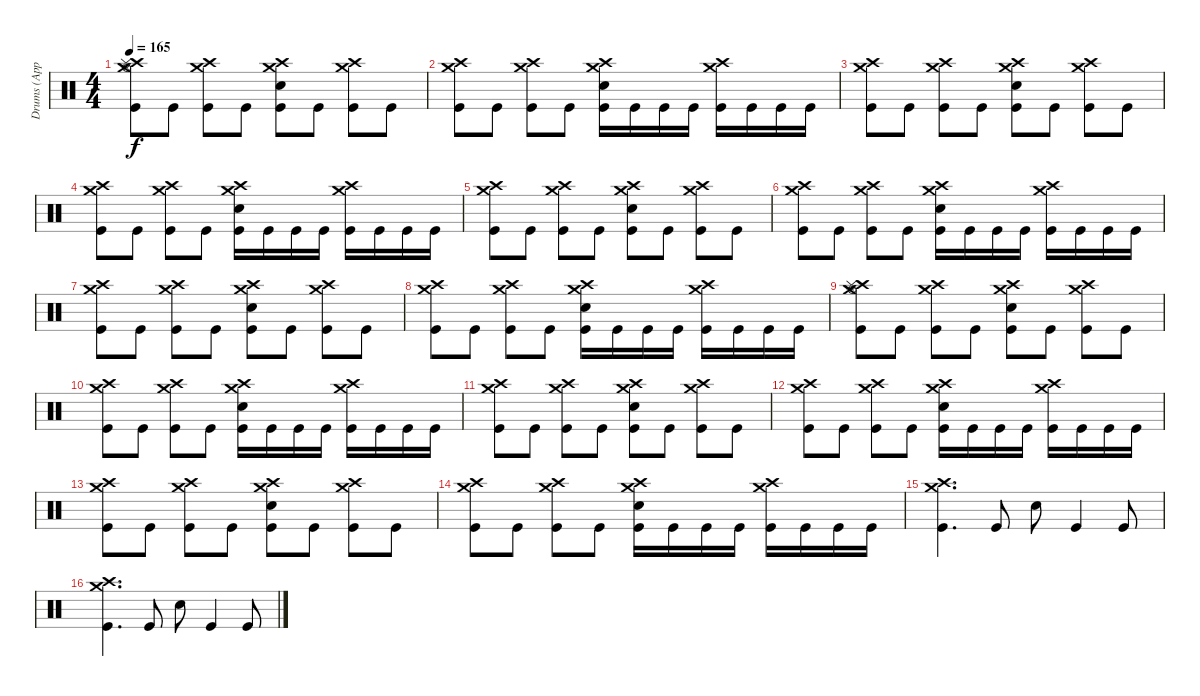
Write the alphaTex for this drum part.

\track ("Drums (Approx.)" "Drums (App") {instrument percussion}
\staff {score}
\articulation defaults
\ts (4 4)
\tempo 165
\clef neutral
\ks c
("Hi-Hat (open)" "Crash medium (hit)" "Crash high (hit)" "Splash (hit)" "Kick (hit)").8{dy f} "Kick (hit)".8 ("Crash medium (hit)" "Crash high (hit)" "Kick (hit)").8 "Kick (hit)".8 ("Crash medium (hit)" "Crash high (hit)" "Electric Snare (hit)" "Kick (hit)").8 "Kick (hit)".8 ("Crash medium (hit)" "Crash high (hit)" "Kick (hit)").8 "Kick (hit)".8 |
("Crash medium (hit)" "Crash high (hit)" "Kick (hit)").8 "Kick (hit)".8 ("Crash medium (hit)" "Crash high (hit)" "Kick (hit)").8 "Kick (hit)".8 ("Crash medium (hit)" "Crash high (hit)" "Electric Snare (hit)" "Kick (hit)").16 "Kick (hit)".16 "Kick (hit)".16 "Kick (hit)".16 ("Crash medium (hit)" "Crash high (hit)" "Kick (hit)").16 "Kick (hit)".16 "Kick (hit)".16 "Kick (hit)".16 |
("Crash medium (hit)" "Crash high (hit)" "Kick (hit)").8 "Kick (hit)".8 ("Crash medium (hit)" "Crash high (hit)" "Kick (hit)").8 "Kick (hit)".8 ("Crash medium (hit)" "Crash high (hit)" "Electric Snare (hit)" "Kick (hit)").8 "Kick (hit)".8 ("Crash medium (hit)" "Crash high (hit)" "Kick (hit)").8 "Kick (hit)".8 |
("Crash medium (hit)" "Crash high (hit)" "Kick (hit)").8 "Kick (hit)".8 ("Crash medium (hit)" "Crash high (hit)" "Kick (hit)").8 "Kick (hit)".8 ("Crash medium (hit)" "Crash high (hit)" "Electric Snare (hit)" "Kick (hit)").16 "Kick (hit)".16 "Kick (hit)".16 "Kick (hit)".16 ("Crash medium (hit)" "Crash high (hit)" "Kick (hit)").16 "Kick (hit)".16 "Kick (hit)".16 "Kick (hit)".16 |
("Crash medium (hit)" "Crash high (hit)" "Kick (hit)").8 "Kick (hit)".8 ("Crash medium (hit)" "Crash high (hit)" "Kick (hit)").8 "Kick (hit)".8 ("Crash medium (hit)" "Crash high (hit)" "Electric Snare (hit)" "Kick (hit)").8 "Kick (hit)".8 ("Crash medium (hit)" "Crash high (hit)" "Kick (hit)").8 "Kick (hit)".8 |
("Crash medium (hit)" "Crash high (hit)" "Kick (hit)").8 "Kick (hit)".8 ("Crash medium (hit)" "Crash high (hit)" "Kick (hit)").8 "Kick (hit)".8 ("Crash medium (hit)" "Crash high (hit)" "Electric Snare (hit)" "Kick (hit)").16 "Kick (hit)".16 "Kick (hit)".16 "Kick (hit)".16 ("Crash medium (hit)" "Crash high (hit)" "Kick (hit)").16 "Kick (hit)".16 "Kick (hit)".16 "Kick (hit)".16 |
("Crash medium (hit)" "Crash high (hit)" "Kick (hit)").8 "Kick (hit)".8 ("Crash medium (hit)" "Crash high (hit)" "Kick (hit)").8 "Kick (hit)".8 ("Crash medium (hit)" "Crash high (hit)" "Electric Snare (hit)" "Kick (hit)").8 "Kick (hit)".8 ("Crash medium (hit)" "Crash high (hit)" "Kick (hit)").8 "Kick (hit)".8 |
("Crash medium (hit)" "Crash high (hit)" "Kick (hit)").8 "Kick (hit)".8 ("Crash medium (hit)" "Crash high (hit)" "Kick (hit)").8 "Kick (hit)".8 ("Crash medium (hit)" "Crash high (hit)" "Electric Snare (hit)" "Kick (hit)").16 "Kick (hit)".16 "Kick (hit)".16 "Kick (hit)".16 ("Crash medium (hit)" "Crash high (hit)" "Kick (hit)").16 "Kick (hit)".16 "Kick (hit)".16 "Kick (hit)".16 |
("Hi-Hat (open)" "Crash medium (hit)" "Crash high (hit)" "Splash (hit)" "Kick (hit)").8 "Kick (hit)".8 ("Crash medium (hit)" "Crash high (hit)" "Kick (hit)").8 "Kick (hit)".8 ("Crash medium (hit)" "Crash high (hit)" "Electric Snare (hit)" "Kick (hit)").8 "Kick (hit)".8 ("Crash medium (hit)" "Crash high (hit)" "Kick (hit)").8 "Kick (hit)".8 |
("Crash medium (hit)" "Crash high (hit)" "Kick (hit)").8 "Kick (hit)".8 ("Crash medium (hit)" "Crash high (hit)" "Kick (hit)").8 "Kick (hit)".8 ("Crash medium (hit)" "Crash high (hit)" "Electric Snare (hit)" "Kick (hit)").16 "Kick (hit)".16 "Kick (hit)".16 "Kick (hit)".16 ("Crash medium (hit)" "Crash high (hit)" "Kick (hit)").16 "Kick (hit)".16 "Kick (hit)".16 "Kick (hit)".16 |
("Crash medium (hit)" "Crash high (hit)" "Kick (hit)").8 "Kick (hit)".8 ("Crash medium (hit)" "Crash high (hit)" "Kick (hit)").8 "Kick (hit)".8 ("Crash medium (hit)" "Crash high (hit)" "Electric Snare (hit)" "Kick (hit)").8 "Kick (hit)".8 ("Crash medium (hit)" "Crash high (hit)" "Kick (hit)").8 "Kick (hit)".8 |
("Crash medium (hit)" "Crash high (hit)" "Kick (hit)").8 "Kick (hit)".8 ("Crash medium (hit)" "Crash high (hit)" "Kick (hit)").8 "Kick (hit)".8 ("Crash medium (hit)" "Crash high (hit)" "Electric Snare (hit)" "Kick (hit)").16 "Kick (hit)".16 "Kick (hit)".16 "Kick (hit)".16 ("Crash medium (hit)" "Crash high (hit)" "Kick (hit)").16 "Kick (hit)".16 "Kick (hit)".16 "Kick (hit)".16 |
("Crash medium (hit)" "Crash high (hit)" "Kick (hit)").8 "Kick (hit)".8 ("Crash medium (hit)" "Crash high (hit)" "Kick (hit)").8 "Kick (hit)".8 ("Crash medium (hit)" "Crash high (hit)" "Electric Snare (hit)" "Kick (hit)").8 "Kick (hit)".8 ("Crash medium (hit)" "Crash high (hit)" "Kick (hit)").8 "Kick (hit)".8 |
("Crash medium (hit)" "Crash high (hit)" "Kick (hit)").8 "Kick (hit)".8 ("Crash medium (hit)" "Crash high (hit)" "Kick (hit)").8 "Kick (hit)".8 ("Crash medium (hit)" "Crash high (hit)" "Electric Snare (hit)" "Kick (hit)").16 "Kick (hit)".16 "Kick (hit)".16 "Kick (hit)".16 ("Crash medium (hit)" "Crash high (hit)" "Kick (hit)").16 "Kick (hit)".16 "Kick (hit)".16 "Kick (hit)".16 |
("Crash medium (hit)" "Crash high (hit)" "Kick (hit)").4{d} "Kick (hit)".8 "Electric Snare (hit)".8 "Kick (hit)".4 "Kick (hit)".8 |
("Crash medium (hit)" "Crash high (hit)" "Kick (hit)").4{d} "Kick (hit)".8 "Electric Snare (hit)".8 "Kick (hit)".4 "Kick (hit)".8
